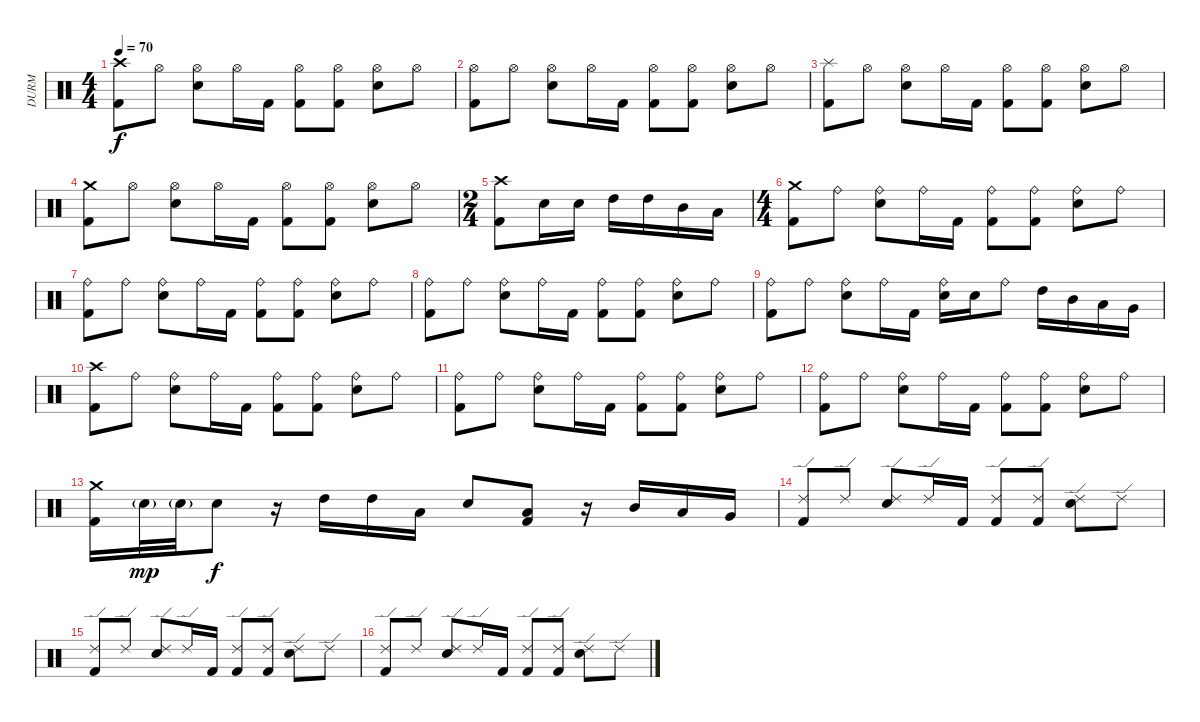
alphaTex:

\track ("DURM" "DURM") {instrument percussion}
\staff {score}
\articulation defaults
\ts (4 4)
\tempo 70
\clef neutral
\ks c
("Crash high (hit)" "Kick (hit) 2").8{dy f} "Hi-Hat (open)".8 ("Hi-Hat (open)" "Snare (hit) 2").8 "Hi-Hat (open)".16 "Kick (hit) 2".16 ("Hi-Hat (open)" "Kick (hit) 2").8 ("Hi-Hat (open)" "Kick (hit) 2").8 ("Hi-Hat (open)" "Snare (hit) 2").8 "Hi-Hat (open)".8 |
("Hi-Hat (open)" "Kick (hit) 2").8 "Hi-Hat (open)".8 ("Hi-Hat (open)" "Snare (hit) 2").8 "Hi-Hat (open)".16 "Kick (hit) 2".16 ("Hi-Hat (open)" "Kick (hit) 2").8 ("Hi-Hat (open)" "Kick (hit) 2").8 ("Hi-Hat (open)" "Snare (hit) 2").8 "Hi-Hat (open)".8 |
("Splash (hit)" "Kick (hit) 2").8 "Hi-Hat (open)".8 ("Hi-Hat (open)" "Snare (hit) 2").8 "Hi-Hat (open)".16 "Kick (hit) 2".16 ("Hi-Hat (open)" "Kick (hit) 2").8 ("Hi-Hat (open)" "Kick (hit) 2").8 ("Hi-Hat (open)" "Snare (hit) 2").8 "Hi-Hat (open)".8 |
("Crash medium (hit)" "Kick (hit) 2").8 "Hi-Hat (open)".8 ("Hi-Hat (open)" "Snare (hit) 2").8 "Hi-Hat (open)".16 "Kick (hit) 2".16 ("Hi-Hat (open)" "Kick (hit) 2").8 ("Hi-Hat (open)" "Kick (hit) 2").8 ("Hi-Hat (open)" "Snare (hit) 2").8 "Hi-Hat (open)".8 |
\ts (2 4)
("Crash high (hit)" "Kick (hit) 2").8 "Snare (hit) 2".16 "Snare (hit) 2".16 "High Tom (hit)".16 "High Tom (hit)".16 "Mid Tom (hit)".16 "Low Tom (hit)".16 |
\ts (4 4)
("Crash medium (hit)" "Kick (hit) 2").8 "Ride (bell)".8 ("Ride (bell)" "Snare (hit) 2").8 "Ride (bell)".16 "Kick (hit) 2".16 ("Ride (bell)" "Kick (hit) 2").8 ("Ride (bell)" "Kick (hit) 2").8 ("Ride (bell)" "Snare (hit) 2").8 "Ride (bell)".8 |
("Ride (bell)" "Kick (hit) 2").8 "Ride (bell)".8 ("Ride (bell)" "Snare (hit) 2").8 "Ride (bell)".16 "Kick (hit) 2".16 ("Ride (bell)" "Kick (hit) 2").8 ("Ride (bell)" "Kick (hit) 2").8 ("Ride (bell)" "Snare (hit) 2").8 "Ride (bell)".8 |
("Ride (bell)" "Kick (hit) 2").8 "Ride (bell)".8 ("Ride (bell)" "Snare (hit) 2").8 "Ride (bell)".16 "Kick (hit) 2".16 ("Ride (bell)" "Kick (hit) 2").8 ("Ride (bell)" "Kick (hit) 2").8 ("Ride (bell)" "Snare (hit) 2").8 "Ride (bell)".8 |
("Ride (bell)" "Kick (hit) 2").8 "Ride (bell)".8 ("Ride (bell)" "Snare (hit) 2").8 "Ride (bell)".16 "Kick (hit) 2".16 ("Ride (bell)" "Snare (hit) 2").16 "Snare (hit) 2".16 "Ride (bell)".8 "High Tom (hit)".16 "Mid Tom (hit)".16 "Low Tom (hit)".16 "Very Low Tom (hit)".16 |
("Crash high (hit)" "Kick (hit) 2").8 "Ride (bell)".8 ("Ride (bell)" "Snare (hit) 2").8 "Ride (bell)".16 "Kick (hit) 2".16 ("Ride (bell)" "Kick (hit) 2").8 ("Ride (bell)" "Kick (hit) 2").8 ("Ride (bell)" "Snare (hit) 2").8 "Ride (bell)".8 |
("Ride (bell)" "Kick (hit) 2").8 "Ride (bell)".8 ("Ride (bell)" "Snare (hit) 2").8 "Ride (bell)".16 "Kick (hit) 2".16 ("Ride (bell)" "Kick (hit) 2").8 ("Ride (bell)" "Kick (hit) 2").8 ("Ride (bell)" "Snare (hit) 2").8 "Ride (bell)".8 |
("Ride (bell)" "Kick (hit) 2").8 "Ride (bell)".8 ("Ride (bell)" "Snare (hit) 2").8 "Ride (bell)".16 "Kick (hit) 2".16 ("Ride (bell)" "Kick (hit) 2").8 ("Ride (bell)" "Kick (hit) 2").8 ("Ride (bell)" "Snare (hit) 2").8 "Ride (bell)".8 |
("Crash medium (hit)" "Kick (hit) 2").16 "Snare (hit) 2"{g}.32{dy mp} "Snare (hit) 2"{g}.32 "Snare (hit) 2".8{dy f} r.16 "High Tom (hit)".16 "High Tom (hit)".16 "Low Floor Tom (hit)".16 "Snare (hit) 2".8 ("Low Tom (hit)" "Kick (hit) 2").8 r.16 "Mid Tom (hit)".16 "Low Tom (hit)".16 "Very Low Tom (hit)".16 |
("Ride (edge) 2" "Kick (hit) 2").8 "Ride (edge) 2".8 ("Ride (edge) 2" "Snare (hit) 2").8 "Ride (edge) 2".16 "Kick (hit) 2".16 ("Ride (edge) 2" "Kick (hit) 2").8 ("Ride (edge) 2" "Kick (hit) 2").8 ("Ride (edge) 2" "Snare (hit) 2").8 "Ride (edge) 2".8 |
("Ride (edge) 2" "Kick (hit) 2").8 "Ride (edge) 2".8 ("Ride (edge) 2" "Snare (hit) 2").8 "Ride (edge) 2".16 "Kick (hit) 2".16 ("Ride (edge) 2" "Kick (hit) 2").8 ("Ride (edge) 2" "Kick (hit) 2").8 ("Ride (edge) 2" "Snare (hit) 2").8 "Ride (edge) 2".8 |
("Ride (edge) 2" "Kick (hit) 2").8 "Ride (edge) 2".8 ("Ride (edge) 2" "Snare (hit) 2").8 "Ride (edge) 2".16 "Kick (hit) 2".16 ("Ride (edge) 2" "Kick (hit) 2").8 ("Ride (edge) 2" "Kick (hit) 2").8 ("Ride (edge) 2" "Snare (hit) 2").8 "Ride (edge) 2".8
